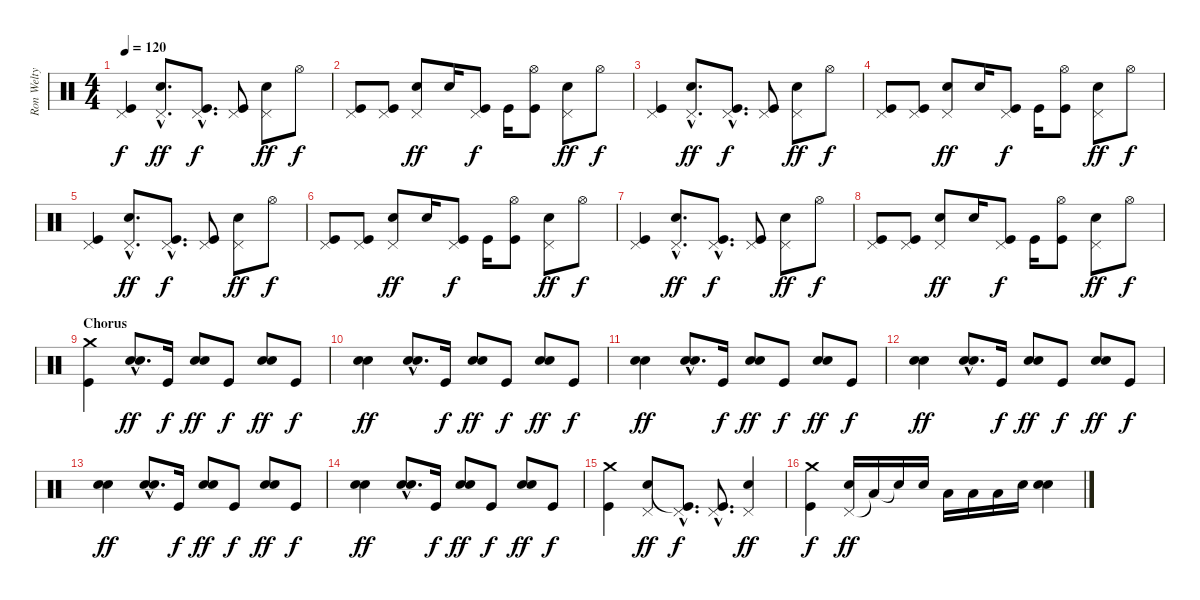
\track ("Ron Welty" "Ron Welty") {instrument percussion}
\staff {score}
\articulation defaults
\ts (4 4)
\tempo 120
\clef neutral
\ks c
("Pedal Hi-Hat (hit)" "Kick (hit)").4{dy f} ("Pedal Hi-Hat (hit)"{hac} "Snare (hit) 2"{hac}).8{d dy ff} ("Pedal Hi-Hat (hit)"{hac} "Kick (hit)"{hac}).8{d dy f} ("Pedal Hi-Hat (hit)" "Kick (hit)").8 ("Pedal Hi-Hat (hit)" "Snare (hit) 2").8{dy ff} "Hi-Hat (open)".8{dy f} |
("Pedal Hi-Hat (hit)" "Kick (hit)").8 ("Pedal Hi-Hat (hit)" "Kick (hit)").8 ("Pedal Hi-Hat (hit)" "Snare (hit) 2").8{dy ff} "Snare (hit) 2".16 ("Pedal Hi-Hat (hit)" "Kick (hit)").8{dy f} "Kick (hit)".16 ("Hi-Hat (open)" "Kick (hit)").8 ("Pedal Hi-Hat (hit)" "Snare (hit) 2").8{dy ff} "Hi-Hat (open)".8{dy f} |
("Pedal Hi-Hat (hit)" "Kick (hit)").4 ("Pedal Hi-Hat (hit)"{hac} "Snare (hit) 2"{hac}).8{d dy ff} ("Pedal Hi-Hat (hit)"{hac} "Kick (hit)"{hac}).8{d dy f} ("Pedal Hi-Hat (hit)" "Kick (hit)").8 ("Pedal Hi-Hat (hit)" "Snare (hit) 2").8{dy ff} "Hi-Hat (open)".8{dy f} |
("Pedal Hi-Hat (hit)" "Kick (hit)").8 ("Pedal Hi-Hat (hit)" "Kick (hit)").8 ("Pedal Hi-Hat (hit)" "Snare (hit) 2").8{dy ff} "Snare (hit) 2".16 ("Pedal Hi-Hat (hit)" "Kick (hit)").8{dy f} "Kick (hit)".16 ("Hi-Hat (open)" "Kick (hit)").8 ("Pedal Hi-Hat (hit)" "Snare (hit) 2").8{dy ff} "Hi-Hat (open)".8{dy f} |
("Pedal Hi-Hat (hit)" "Kick (hit)").4 ("Pedal Hi-Hat (hit)"{hac} "Snare (hit) 2"{hac}).8{d dy ff} ("Pedal Hi-Hat (hit)"{hac} "Kick (hit)"{hac}).8{d dy f} ("Pedal Hi-Hat (hit)" "Kick (hit)").8 ("Pedal Hi-Hat (hit)" "Snare (hit) 2").8{dy ff} "Hi-Hat (open)".8{dy f} |
("Pedal Hi-Hat (hit)" "Kick (hit)").8 ("Pedal Hi-Hat (hit)" "Kick (hit)").8 ("Pedal Hi-Hat (hit)" "Snare (hit) 2").8{dy ff} "Snare (hit) 2".16 ("Pedal Hi-Hat (hit)" "Kick (hit)").8{dy f} "Kick (hit)".16 ("Hi-Hat (open)" "Kick (hit)").8 ("Pedal Hi-Hat (hit)" "Snare (hit) 2").8{dy ff} "Hi-Hat (open)".8{dy f} |
("Pedal Hi-Hat (hit)" "Kick (hit)").4 ("Pedal Hi-Hat (hit)"{hac} "Snare (hit) 2"{hac}).8{d dy ff} ("Pedal Hi-Hat (hit)"{hac} "Kick (hit)"{hac}).8{d dy f} ("Pedal Hi-Hat (hit)" "Kick (hit)").8 ("Pedal Hi-Hat (hit)" "Snare (hit) 2").8{dy ff} "Hi-Hat (open)".8{dy f} |
("Pedal Hi-Hat (hit)" "Kick (hit)").8 ("Pedal Hi-Hat (hit)" "Kick (hit)").8 ("Pedal Hi-Hat (hit)" "Snare (hit) 2").8{dy ff} "Snare (hit) 2".16 ("Pedal Hi-Hat (hit)" "Kick (hit)").8{dy f} "Kick (hit)".16 ("Hi-Hat (open)" "Kick (hit)").8 ("Pedal Hi-Hat (hit)" "Snare (hit) 2").8{dy ff} "Hi-Hat (open)".8{dy f} |
\section ("" "Chorus")
("Crash medium (hit)" "Kick (hit)").4 ("Snare (hit) 2"{hac} "Snare (hit) 2"{hac}).8{d bd 120 dy ff} "Kick (hit)".16{dy f} ("Snare (hit) 2" "Snare (hit) 2").8{bd 120 dy ff} "Kick (hit)".8{dy f} ("Snare (hit) 2" "Snare (hit) 2").8{bd 120 dy ff} "Kick (hit)".8{dy f} |
("Snare (hit) 2" "Snare (hit) 2").4{bd 120 dy ff} ("Snare (hit) 2"{hac} "Snare (hit) 2"{hac}).8{d bd 120} "Kick (hit)".16{dy f} ("Snare (hit) 2" "Snare (hit) 2").8{bd 120 dy ff} "Kick (hit)".8{dy f} ("Snare (hit) 2" "Snare (hit) 2").8{bd 120 dy ff} "Kick (hit)".8{dy f} |
("Snare (hit) 2" "Snare (hit) 2").4{bd 120 dy ff} ("Snare (hit) 2"{hac} "Snare (hit) 2"{hac}).8{d bd 120} "Kick (hit)".16{dy f} ("Snare (hit) 2" "Snare (hit) 2").8{bd 120 dy ff} "Kick (hit)".8{dy f} ("Snare (hit) 2" "Snare (hit) 2").8{bd 120 dy ff} "Kick (hit)".8{dy f} |
("Snare (hit) 2" "Snare (hit) 2").4{bd 120 dy ff} ("Snare (hit) 2"{hac} "Snare (hit) 2"{hac}).8{d bd 120} "Kick (hit)".16{dy f} ("Snare (hit) 2" "Snare (hit) 2").8{bd 120 dy ff} "Kick (hit)".8{dy f} ("Snare (hit) 2" "Snare (hit) 2").8{bd 120 dy ff} "Kick (hit)".8{dy f} |
("Snare (hit) 2" "Snare (hit) 2").4{bd 120 dy ff} ("Snare (hit) 2"{hac} "Snare (hit) 2"{hac}).8{d bd 120} "Kick (hit)".16{dy f} ("Snare (hit) 2" "Snare (hit) 2").8{bd 120 dy ff} "Kick (hit)".8{dy f} ("Snare (hit) 2" "Snare (hit) 2").8{bd 120 dy ff} "Kick (hit)".8{dy f} |
("Snare (hit) 2" "Snare (hit) 2").4{bd 120 dy ff} ("Snare (hit) 2"{hac} "Snare (hit) 2"{hac}).8{d bd 120} "Kick (hit)".16{dy f} ("Snare (hit) 2" "Snare (hit) 2").8{bd 120 dy ff} "Kick (hit)".8{dy f} ("Snare (hit) 2" "Snare (hit) 2").8{bd 120 dy ff} "Kick (hit)".8{dy f} |
("Crash medium (hit)" "Kick (hit)").4 ("Pedal Hi-Hat (hit)" "Snare (hit) 2").8{dy ff} ("Pedal Hi-Hat (hit)"{hac} "Kick (hit)"{hac t}).8{d dy f} ("Pedal Hi-Hat (hit)"{hac} "Kick (hit)"{hac}).8{d} ("Pedal Hi-Hat (hit)" "Snare (hit) 2").4{dy ff} |
("Crash medium (hit)" "Kick (hit)").4{dy f} ("Pedal Hi-Hat (hit)" "Snare (hit) 2").16{dy ff} "Low Tom (hit)"{t}.16 "Snare (hit) 2"{t}.16 "Snare (hit) 2".16 "Low Tom (hit)".16 "Low Tom (hit)".16 "Low Tom (hit)".16 "Snare (hit) 2".16 ("Snare (hit) 2" "Snare (hit) 2").4{bd 120}
